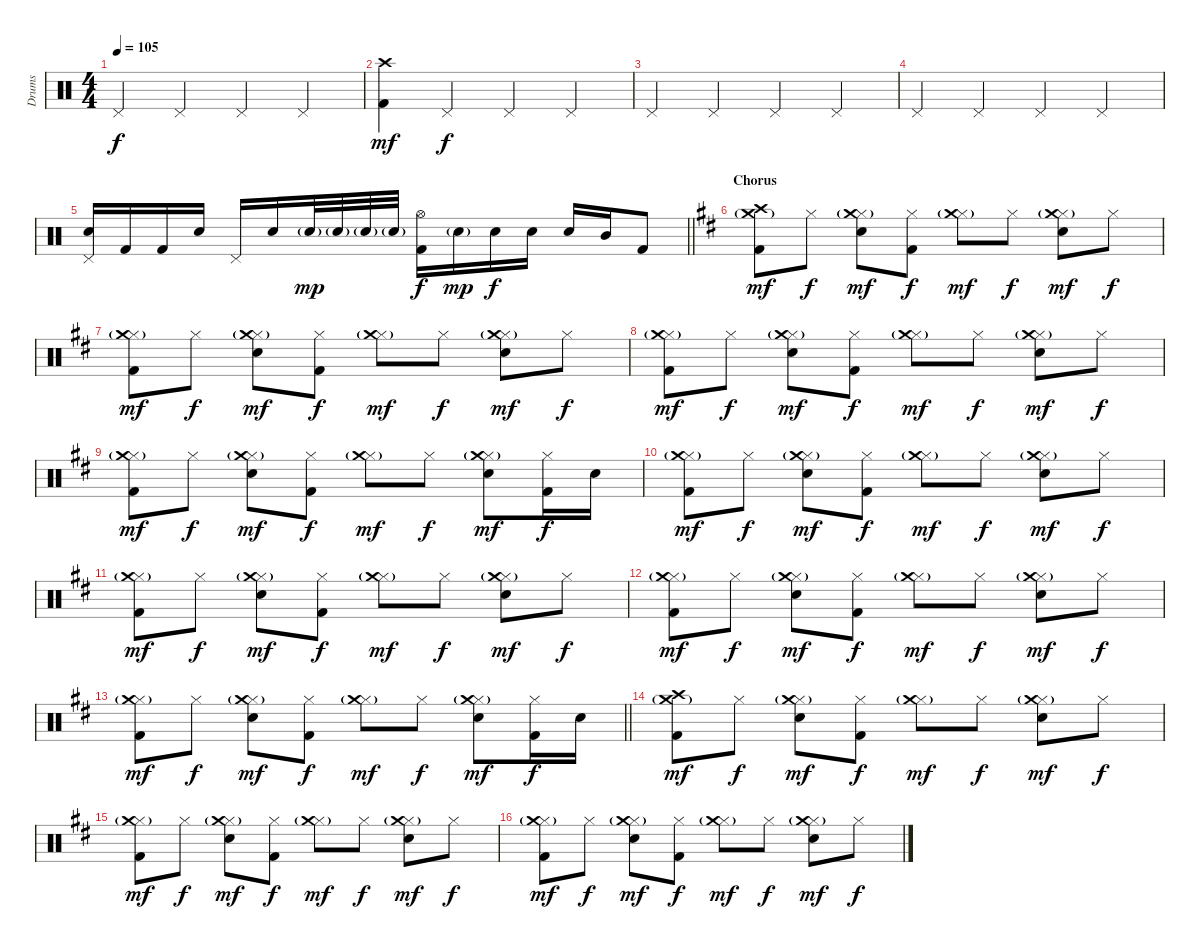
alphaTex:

\track ("Drums" "Drums") {instrument percussion}
\staff {score}
\articulation defaults
\ts (4 4)
\tempo 105
\clef neutral
\ks aminor "Pedal Hi-Hat (hit)".4{dy f} "Pedal Hi-Hat (hit)".4 "Pedal Hi-Hat (hit)".4 "Pedal Hi-Hat (hit)".4
|
("Crash high (hit)" "Kick (hit) 2").4{dy mf} "Pedal Hi-Hat (hit)".4{dy f} "Pedal Hi-Hat (hit)".4 "Pedal Hi-Hat (hit)".4 |
"Pedal Hi-Hat (hit)".4 "Pedal Hi-Hat (hit)".4 "Pedal Hi-Hat (hit)".4 "Pedal Hi-Hat (hit)".4 |
"Pedal Hi-Hat (hit)".4 "Pedal Hi-Hat (hit)".4 "Pedal Hi-Hat (hit)".4 "Pedal Hi-Hat (hit)".4 |
\barLineRight lightlight
("Electric Snare (hit)" "Pedal Hi-Hat (hit)").16 "Kick (hit) 2".16 "Kick (hit) 2".16 "Electric Snare (hit)".16 "Pedal Hi-Hat (hit)".16 "Electric Snare (hit)".16 "Electric Snare (hit)"{g}.32{dy mp} "Electric Snare (hit)"{g}.32 "Electric Snare (hit)"{g}.32 "Electric Snare (hit)"{g}.32 ("Hi-Hat (open)" "Kick (hit) 2").16{dy f} "Electric Snare (hit)"{g}.16{dy mp} "Electric Snare (hit)".16{dy f} "Electric Snare (hit)".16 "Electric Snare (hit)".16 "Mid Tom (hit)".16 "Kick (hit) 2".8 |
\section ("" "Chorus")
\ks bminor
("Crash high (hit)" "Crash medium (hit)"{g} "Kick (hit) 2").8{dy mf} "Hi-Hat (closed)".8{dy f} ("Hi-Hat (closed)" "Crash medium (hit)"{g} "Electric Snare (hit)").8{dy mf} ("Hi-Hat (closed)" "Kick (hit) 2").8{dy f} ("Hi-Hat (closed)" "Crash medium (hit)"{g}).8{dy mf} "Hi-Hat (closed)".8{dy f} ("Hi-Hat (closed)" "Crash medium (hit)"{g} "Electric Snare (hit)").8{dy mf} "Hi-Hat (closed)".8{dy f} |
("Hi-Hat (closed)" "Crash medium (hit)"{g} "Kick (hit) 2").8{dy mf} "Hi-Hat (closed)".8{dy f} ("Hi-Hat (closed)" "Crash medium (hit)"{g} "Electric Snare (hit)").8{dy mf} ("Hi-Hat (closed)" "Kick (hit) 2").8{dy f} ("Hi-Hat (closed)" "Crash medium (hit)"{g}).8{dy mf} "Hi-Hat (closed)".8{dy f} ("Hi-Hat (closed)" "Crash medium (hit)"{g} "Electric Snare (hit)").8{dy mf} "Hi-Hat (closed)".8{dy f} |
("Hi-Hat (closed)" "Crash medium (hit)"{g} "Kick (hit) 2").8{dy mf} "Hi-Hat (closed)".8{dy f} ("Hi-Hat (closed)" "Crash medium (hit)"{g} "Electric Snare (hit)").8{dy mf} ("Hi-Hat (closed)" "Kick (hit) 2").8{dy f} ("Hi-Hat (closed)" "Crash medium (hit)"{g}).8{dy mf} "Hi-Hat (closed)".8{dy f} ("Hi-Hat (closed)" "Crash medium (hit)"{g} "Electric Snare (hit)").8{dy mf} "Hi-Hat (closed)".8{dy f} |
("Hi-Hat (closed)" "Crash medium (hit)"{g} "Kick (hit) 2").8{dy mf} "Hi-Hat (closed)".8{dy f} ("Hi-Hat (closed)" "Crash medium (hit)"{g} "Electric Snare (hit)").8{dy mf} ("Hi-Hat (closed)" "Kick (hit) 2").8{dy f} ("Hi-Hat (closed)" "Crash medium (hit)"{g}).8{dy mf} "Hi-Hat (closed)".8{dy f} ("Hi-Hat (closed)" "Crash medium (hit)"{g} "Electric Snare (hit)").8{dy mf} ("Hi-Hat (closed)" "Kick (hit) 2").16{dy f} "Electric Snare (hit)".16 |
("Hi-Hat (closed)" "Crash medium (hit)"{g} "Kick (hit) 2").8{dy mf} "Hi-Hat (closed)".8{dy f} ("Hi-Hat (closed)" "Crash medium (hit)"{g} "Electric Snare (hit)").8{dy mf} ("Hi-Hat (closed)" "Kick (hit) 2").8{dy f} ("Hi-Hat (closed)" "Crash medium (hit)"{g}).8{dy mf} "Hi-Hat (closed)".8{dy f} ("Hi-Hat (closed)" "Crash medium (hit)"{g} "Electric Snare (hit)").8{dy mf} "Hi-Hat (closed)".8{dy f} |
("Hi-Hat (closed)" "Crash medium (hit)"{g} "Kick (hit) 2").8{dy mf} "Hi-Hat (closed)".8{dy f} ("Hi-Hat (closed)" "Crash medium (hit)"{g} "Electric Snare (hit)").8{dy mf} ("Hi-Hat (closed)" "Kick (hit) 2").8{dy f} ("Hi-Hat (closed)" "Crash medium (hit)"{g}).8{dy mf} "Hi-Hat (closed)".8{dy f} ("Hi-Hat (closed)" "Crash medium (hit)"{g} "Electric Snare (hit)").8{dy mf} "Hi-Hat (closed)".8{dy f} |
("Hi-Hat (closed)" "Crash medium (hit)"{g} "Kick (hit) 2").8{dy mf} "Hi-Hat (closed)".8{dy f} ("Hi-Hat (closed)" "Crash medium (hit)"{g} "Electric Snare (hit)").8{dy mf} ("Hi-Hat (closed)" "Kick (hit) 2").8{dy f} ("Hi-Hat (closed)" "Crash medium (hit)"{g}).8{dy mf} "Hi-Hat (closed)".8{dy f} ("Hi-Hat (closed)" "Crash medium (hit)"{g} "Electric Snare (hit)").8{dy mf} "Hi-Hat (closed)".8{dy f} |
\barLineRight lightlight
("Hi-Hat (closed)" "Crash medium (hit)"{g} "Kick (hit) 2").8{dy mf} "Hi-Hat (closed)".8{dy f} ("Hi-Hat (closed)" "Crash medium (hit)"{g} "Electric Snare (hit)").8{dy mf} ("Hi-Hat (closed)" "Kick (hit) 2").8{dy f} ("Hi-Hat (closed)" "Crash medium (hit)"{g}).8{dy mf} "Hi-Hat (closed)".8{dy f} ("Hi-Hat (closed)" "Crash medium (hit)"{g} "Electric Snare (hit)").8{dy mf} ("Hi-Hat (closed)" "Kick (hit) 2").16{dy f} "Electric Snare (hit)".16 |
\section ("" "")
("Crash high (hit)" "Crash medium (hit)"{g} "Kick (hit) 2").8{dy mf} "Hi-Hat (closed)".8{dy f} ("Hi-Hat (closed)" "Crash medium (hit)"{g} "Electric Snare (hit)").8{dy mf} ("Hi-Hat (closed)" "Kick (hit) 2").8{dy f} ("Hi-Hat (closed)" "Crash medium (hit)"{g}).8{dy mf} "Hi-Hat (closed)".8{dy f} ("Hi-Hat (closed)" "Crash medium (hit)"{g} "Electric Snare (hit)").8{dy mf} "Hi-Hat (closed)".8{dy f} |
("Hi-Hat (closed)" "Crash medium (hit)"{g} "Kick (hit) 2").8{dy mf} "Hi-Hat (closed)".8{dy f} ("Hi-Hat (closed)" "Crash medium (hit)"{g} "Electric Snare (hit)").8{dy mf} ("Hi-Hat (closed)" "Kick (hit) 2").8{dy f} ("Hi-Hat (closed)" "Crash medium (hit)"{g}).8{dy mf} "Hi-Hat (closed)".8{dy f} ("Hi-Hat (closed)" "Crash medium (hit)"{g} "Electric Snare (hit)").8{dy mf} "Hi-Hat (closed)".8{dy f} |
("Hi-Hat (closed)" "Crash medium (hit)"{g} "Kick (hit) 2").8{dy mf} "Hi-Hat (closed)".8{dy f} ("Hi-Hat (closed)" "Crash medium (hit)"{g} "Electric Snare (hit)").8{dy mf} ("Hi-Hat (closed)" "Kick (hit) 2").8{dy f} ("Hi-Hat (closed)" "Crash medium (hit)"{g}).8{dy mf} "Hi-Hat (closed)".8{dy f} ("Hi-Hat (closed)" "Crash medium (hit)"{g} "Electric Snare (hit)").8{dy mf} "Hi-Hat (closed)".8{dy f}
